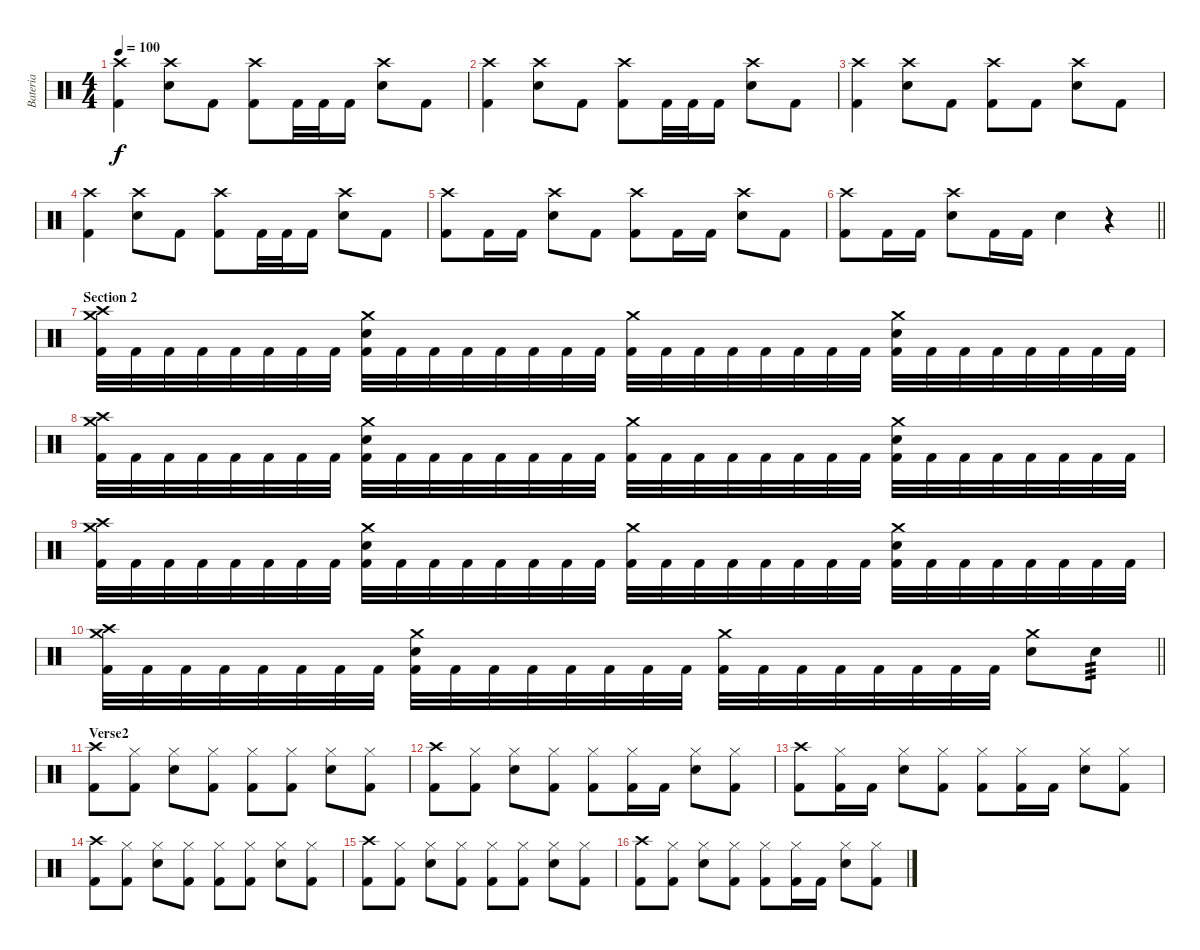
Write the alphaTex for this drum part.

\track ("Bateria" "Bateria") {instrument percussion}
\staff {score}
\articulation defaults
\ts (4 4)
\tempo 100
\clef neutral
\ks c
("Crash high (hit)" "Kick (hit) 2").4{dy f} ("Crash high (hit)" "Snare (hit) 2").8 "Kick (hit) 2".8 ("Crash high (hit)" "Kick (hit) 2").8 "Kick (hit) 2".32 "Kick (hit) 2".32 "Kick (hit) 2".16 ("Crash high (hit)" "Snare (hit) 2").8 "Kick (hit) 2".8 |
("Crash high (hit)" "Kick (hit) 2").4 ("Crash high (hit)" "Snare (hit) 2").8 "Kick (hit) 2".8 ("Crash high (hit)" "Kick (hit) 2").8 "Kick (hit) 2".32 "Kick (hit) 2".32 "Kick (hit) 2".16 ("Crash high (hit)" "Snare (hit) 2").8 "Kick (hit) 2".8 |
("Crash high (hit)" "Kick (hit) 2").4 ("Crash high (hit)" "Snare (hit) 2").8 "Kick (hit) 2".8 ("Crash high (hit)" "Kick (hit) 2").8 "Kick (hit) 2".8 ("Crash high (hit)" "Snare (hit) 2").8 "Kick (hit) 2".8 |
("Crash high (hit)" "Kick (hit) 2").4 ("Crash high (hit)" "Snare (hit) 2").8 "Kick (hit) 2".8 ("Crash high (hit)" "Kick (hit) 2").8 "Kick (hit) 2".32 "Kick (hit) 2".32 "Kick (hit) 2".16 ("Crash high (hit)" "Snare (hit) 2").8 "Kick (hit) 2".8 |
("Crash high (hit)" "Kick (hit) 2").8 "Kick (hit) 2".16 "Kick (hit) 2".16 ("Crash high (hit)" "Snare (hit) 2").8 "Kick (hit) 2".8 ("Crash high (hit)" "Kick (hit) 2").8 "Kick (hit) 2".16 "Kick (hit) 2".16 ("Crash high (hit)" "Snare (hit) 2").8 "Kick (hit) 2".8 |
\barLineRight lightlight
("Crash high (hit)" "Kick (hit) 2").8 "Kick (hit) 2".16 "Kick (hit) 2".16 ("Crash high (hit)" "Snare (hit) 2").8 "Kick (hit) 2".16 "Kick (hit) 2".16 "Snare (hit) 2".4 r.4 |
\section ("" "Section 2")
("Crash high (hit)" "Crash medium (hit)" "Kick (hit) 2").32 "Kick (hit) 2".32 "Kick (hit) 2".32 "Kick (hit) 2".32 "Kick (hit) 2".32 "Kick (hit) 2".32 "Kick (hit) 2".32 "Kick (hit) 2".32 ("Crash medium (hit)" "Snare (hit) 2" "Kick (hit) 2").32 "Kick (hit) 2".32 "Kick (hit) 2".32 "Kick (hit) 2".32 "Kick (hit) 2".32 "Kick (hit) 2".32 "Kick (hit) 2".32 "Kick (hit) 2".32 ("Crash medium (hit)" "Kick (hit) 2").32 "Kick (hit) 2".32 "Kick (hit) 2".32 "Kick (hit) 2".32 "Kick (hit) 2".32 "Kick (hit) 2".32 "Kick (hit) 2".32 "Kick (hit) 2".32 ("Crash medium (hit)" "Snare (hit) 2" "Kick (hit) 2").32 "Kick (hit) 2".32 "Kick (hit) 2".32 "Kick (hit) 2".32 "Kick (hit) 2".32 "Kick (hit) 2".32 "Kick (hit) 2".32 "Kick (hit) 2".32 |
("Crash high (hit)" "Crash medium (hit)" "Kick (hit) 2").32 "Kick (hit) 2".32 "Kick (hit) 2".32 "Kick (hit) 2".32 "Kick (hit) 2".32 "Kick (hit) 2".32 "Kick (hit) 2".32 "Kick (hit) 2".32 ("Crash medium (hit)" "Snare (hit) 2" "Kick (hit) 2").32 "Kick (hit) 2".32 "Kick (hit) 2".32 "Kick (hit) 2".32 "Kick (hit) 2".32 "Kick (hit) 2".32 "Kick (hit) 2".32 "Kick (hit) 2".32 ("Crash medium (hit)" "Kick (hit) 2").32 "Kick (hit) 2".32 "Kick (hit) 2".32 "Kick (hit) 2".32 "Kick (hit) 2".32 "Kick (hit) 2".32 "Kick (hit) 2".32 "Kick (hit) 2".32 ("Crash medium (hit)" "Snare (hit) 2" "Kick (hit) 2").32 "Kick (hit) 2".32 "Kick (hit) 2".32 "Kick (hit) 2".32 "Kick (hit) 2".32 "Kick (hit) 2".32 "Kick (hit) 2".32 "Kick (hit) 2".32 |
("Crash high (hit)" "Crash medium (hit)" "Kick (hit) 2").32 "Kick (hit) 2".32 "Kick (hit) 2".32 "Kick (hit) 2".32 "Kick (hit) 2".32 "Kick (hit) 2".32 "Kick (hit) 2".32 "Kick (hit) 2".32 ("Crash medium (hit)" "Snare (hit) 2" "Kick (hit) 2").32 "Kick (hit) 2".32 "Kick (hit) 2".32 "Kick (hit) 2".32 "Kick (hit) 2".32 "Kick (hit) 2".32 "Kick (hit) 2".32 "Kick (hit) 2".32 ("Crash medium (hit)" "Kick (hit) 2").32 "Kick (hit) 2".32 "Kick (hit) 2".32 "Kick (hit) 2".32 "Kick (hit) 2".32 "Kick (hit) 2".32 "Kick (hit) 2".32 "Kick (hit) 2".32 ("Crash medium (hit)" "Snare (hit) 2" "Kick (hit) 2").32 "Kick (hit) 2".32 "Kick (hit) 2".32 "Kick (hit) 2".32 "Kick (hit) 2".32 "Kick (hit) 2".32 "Kick (hit) 2".32 "Kick (hit) 2".32 |
\barLineRight lightlight
("Crash high (hit)" "Crash medium (hit)" "Kick (hit) 2").32 "Kick (hit) 2".32 "Kick (hit) 2".32 "Kick (hit) 2".32 "Kick (hit) 2".32 "Kick (hit) 2".32 "Kick (hit) 2".32 "Kick (hit) 2".32 ("Crash medium (hit)" "Snare (hit) 2" "Kick (hit) 2").32 "Kick (hit) 2".32 "Kick (hit) 2".32 "Kick (hit) 2".32 "Kick (hit) 2".32 "Kick (hit) 2".32 "Kick (hit) 2".32 "Kick (hit) 2".32 ("Crash medium (hit)" "Kick (hit) 2").32 "Kick (hit) 2".32 "Kick (hit) 2".32 "Kick (hit) 2".32 "Kick (hit) 2".32 "Kick (hit) 2".32 "Kick (hit) 2".32 "Kick (hit) 2".32 ("Crash medium (hit)" "Snare (hit) 2").8 "Snare (hit) 2".8{tp 3} |
\section ("" "Verse2")
("Crash high (hit)" "Kick (hit) 2").8 ("Hi-Hat (closed)" "Kick (hit) 2").8 ("Hi-Hat (closed)" "Snare (hit) 2").8 ("Hi-Hat (closed)" "Kick (hit) 2").8 ("Hi-Hat (closed)" "Kick (hit) 2").8 ("Hi-Hat (closed)" "Kick (hit) 2").8 ("Hi-Hat (closed)" "Snare (hit) 2").8 ("Hi-Hat (closed)" "Kick (hit) 2").8 |
("Crash high (hit)" "Kick (hit) 2").8 ("Hi-Hat (closed)" "Kick (hit) 2").8 ("Hi-Hat (closed)" "Snare (hit) 2").8 ("Hi-Hat (closed)" "Kick (hit) 2").8 ("Hi-Hat (closed)" "Kick (hit) 2").8 ("Hi-Hat (closed)" "Kick (hit) 2").16 "Kick (hit) 2".16 ("Hi-Hat (closed)" "Snare (hit) 2").8 ("Hi-Hat (closed)" "Kick (hit) 2").8 |
("Crash high (hit)" "Kick (hit) 2").8 ("Hi-Hat (closed)" "Kick (hit) 2").16 "Kick (hit) 2".16 ("Hi-Hat (closed)" "Snare (hit) 2").8 ("Hi-Hat (closed)" "Kick (hit) 2").8 ("Hi-Hat (closed)" "Kick (hit) 2").8 ("Hi-Hat (closed)" "Kick (hit) 2").16 "Kick (hit) 2".16 ("Hi-Hat (closed)" "Snare (hit) 2").8 ("Hi-Hat (closed)" "Kick (hit) 2").8 |
("Crash high (hit)" "Kick (hit) 2").8 ("Hi-Hat (closed)" "Kick (hit) 2").8 ("Hi-Hat (closed)" "Snare (hit) 2").8 ("Hi-Hat (closed)" "Kick (hit) 2").8 ("Hi-Hat (closed)" "Kick (hit) 2").8 ("Hi-Hat (closed)" "Kick (hit) 2").8 ("Hi-Hat (closed)" "Snare (hit) 2").8 ("Hi-Hat (closed)" "Kick (hit) 2").8 |
("Crash high (hit)" "Kick (hit) 2").8 ("Hi-Hat (closed)" "Kick (hit) 2").8 ("Hi-Hat (closed)" "Snare (hit) 2").8 ("Hi-Hat (closed)" "Kick (hit) 2").8 ("Hi-Hat (closed)" "Kick (hit) 2").8 ("Hi-Hat (closed)" "Kick (hit) 2").8 ("Hi-Hat (closed)" "Snare (hit) 2").8 ("Hi-Hat (closed)" "Kick (hit) 2").8 |
("Crash high (hit)" "Kick (hit) 2").8 ("Hi-Hat (closed)" "Kick (hit) 2").8 ("Hi-Hat (closed)" "Snare (hit) 2").8 ("Hi-Hat (closed)" "Kick (hit) 2").8 ("Hi-Hat (closed)" "Kick (hit) 2").8 ("Hi-Hat (closed)" "Kick (hit) 2").16 "Kick (hit) 2".16 ("Hi-Hat (closed)" "Snare (hit) 2").8 ("Hi-Hat (closed)" "Kick (hit) 2").8
